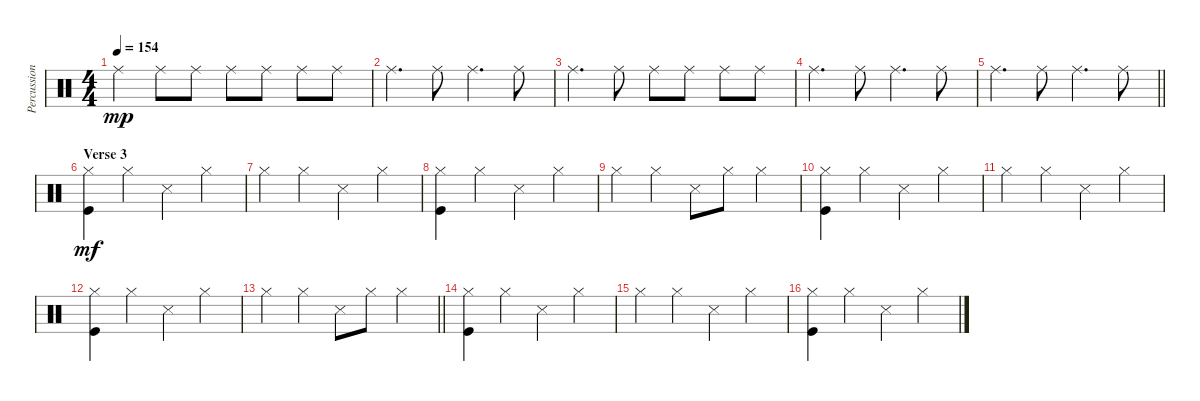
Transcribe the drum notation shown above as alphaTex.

\track ("Percussion" "Percussion") {instrument percussion}
\staff {score}
\articulation defaults
\ts (4 4)
\tempo 154
\clef neutral
\ks c "Ride (middle)".4{dy mp} "Ride (middle)".8 "Ride (middle)".8 "Ride (middle)".8 "Ride (middle)".8 "Ride (middle)".8 "Ride (middle)".8
|
"Ride (middle)".4{d} "Ride (middle)".8 "Ride (middle)".4{d} "Ride (middle)".8 |
"Ride (middle)".4{d} "Ride (middle)".8 "Ride (middle)".8 "Ride (middle)".8 "Ride (middle)".8 "Ride (middle)".8 |
"Ride (middle)".4{d} "Ride (middle)".8 "Ride (middle)".4{d} "Ride (middle)".8 |
\barLineRight lightlight "Ride (middle)".4{d} "Ride (middle)".8 "Ride (middle)".4{d} "Ride (middle)".8
|
\section ("" "Verse 3")
("Hi-Hat (closed)" "Kick (hit)").4{dy mf} "Hi-Hat (closed)".4 "Snare (side stick) 3".4 "Hi-Hat (closed)".4 |
"Hi-Hat (closed)".4 "Hi-Hat (closed)".4 "Snare (side stick) 3".4 "Hi-Hat (closed)".4 |
("Hi-Hat (closed)" "Kick (hit)").4 "Hi-Hat (closed)".4 "Snare (side stick) 3".4 "Hi-Hat (closed)".4 |
"Hi-Hat (closed)".4 "Hi-Hat (closed)".4 "Snare (side stick) 3".8 "Hi-Hat (closed)".8 "Hi-Hat (closed)".4 |
("Hi-Hat (closed)" "Kick (hit)").4 "Hi-Hat (closed)".4 "Snare (side stick) 3".4 "Hi-Hat (closed)".4 |
"Hi-Hat (closed)".4 "Hi-Hat (closed)".4 "Snare (side stick) 3".4 "Hi-Hat (closed)".4 |
("Hi-Hat (closed)" "Kick (hit)").4 "Hi-Hat (closed)".4 "Snare (side stick) 3".4 "Hi-Hat (closed)".4 |
\barLineRight lightlight "Hi-Hat (closed)".4 "Hi-Hat (closed)".4 "Snare (side stick) 3".8 "Hi-Hat (closed)".8 "Hi-Hat (closed)".4
|
("Hi-Hat (closed)" "Kick (hit)").4 "Hi-Hat (closed)".4 "Snare (side stick) 3".4 "Hi-Hat (closed)".4 |
"Hi-Hat (closed)".4 "Hi-Hat (closed)".4 "Snare (side stick) 3".4 "Hi-Hat (closed)".4 |
("Hi-Hat (closed)" "Kick (hit)").4 "Hi-Hat (closed)".4 "Snare (side stick) 3".4 "Hi-Hat (closed)".4
